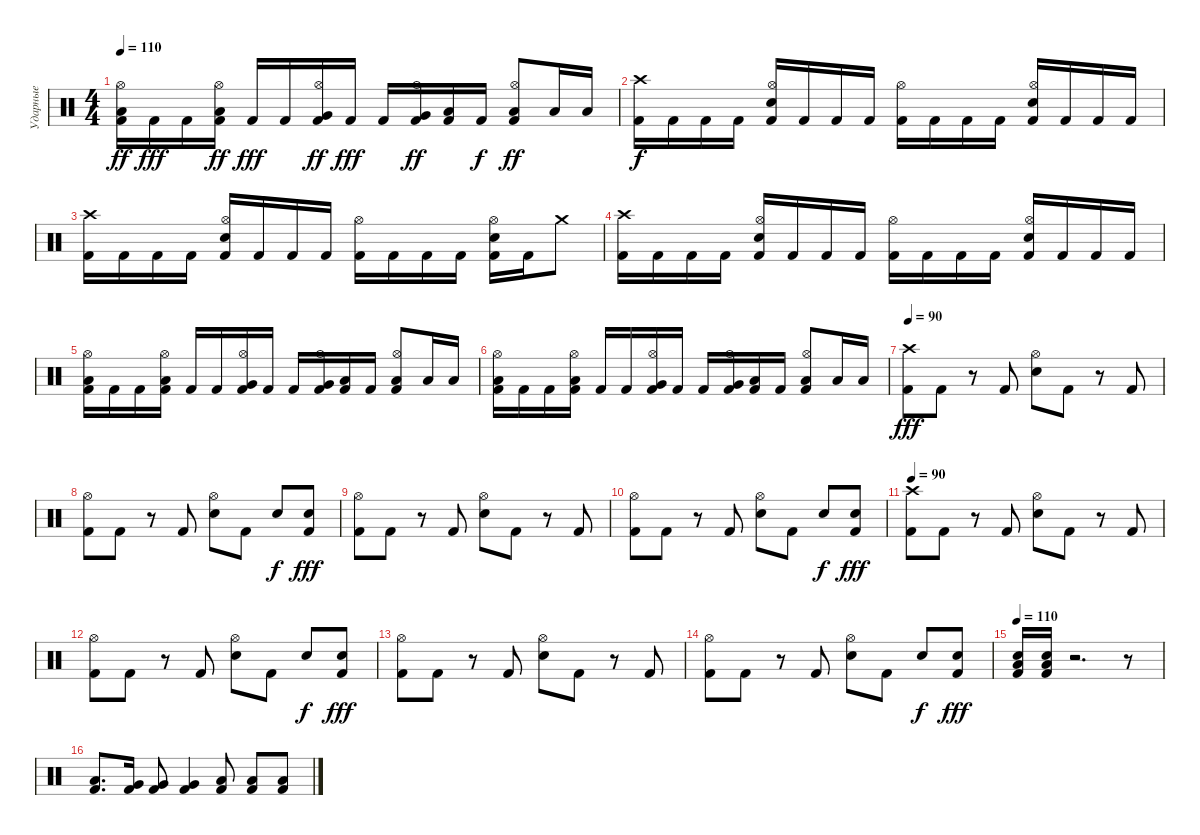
\track ("Ударные" "Ударные") {instrument percussion}
\staff {score}
\articulation defaults
\ts (4 4)
\tempo 110
\clef neutral
\ks c
("Kick (hit) 2" "Low Floor Tom (hit)" "Hi-Hat (open)").16{dy ff} "Kick (hit) 2".16{dy fff} "Kick (hit) 2".16 ("Kick (hit) 2" "Low Floor Tom (hit)" "Hi-Hat (open)").16{dy ff} "Kick (hit) 2".16{dy fff} "Kick (hit) 2".16 ("Kick (hit) 2" "Very Low Tom (hit)" "Hi-Hat (open)").16{dy ff} "Kick (hit) 2".16{dy fff} "Kick (hit) 2".16 ("Kick (hit) 2" "Very Low Tom (hit)" "Hi-Hat (open)").16{dy ff} ("Kick (hit) 2" "Low Tom (hit)").16 "Kick (hit) 2".16{dy f} ("Kick (hit) 2" "Low Tom (hit)" "Hi-Hat (open)").8{dy ff} "Low Floor Tom (hit)".16 "Low Floor Tom (hit)".16 |
("Kick (hit) 2" "Crash high (hit)").16{dy f} "Kick (hit) 2".16 "Kick (hit) 2".16 "Kick (hit) 2".16 ("Kick (hit) 2" "Hi-Hat (open)" "Snare (hit) 2").16 "Kick (hit) 2".16 "Kick (hit) 2".16 "Kick (hit) 2".16 ("Kick (hit) 2" "Hi-Hat (open)").16 "Kick (hit) 2".16 "Kick (hit) 2".16 "Kick (hit) 2".16 ("Kick (hit) 2" "Hi-Hat (open)" "Snare (hit) 2").16 "Kick (hit) 2".16 "Kick (hit) 2".16 "Kick (hit) 2".16 |
("Kick (hit) 2" "Crash high (hit)").16 "Kick (hit) 2".16 "Kick (hit) 2".16 "Kick (hit) 2".16 ("Kick (hit) 2" "Hi-Hat (open)" "Snare (hit) 2").16 "Kick (hit) 2".16 "Kick (hit) 2".16 "Kick (hit) 2".16 ("Kick (hit) 2" "Hi-Hat (open)").16 "Kick (hit) 2".16 "Kick (hit) 2".16 "Kick (hit) 2".16 ("Kick (hit) 2" "Hi-Hat (open)" "Snare (hit) 2").16 "Kick (hit) 2".16 "Crash medium (hit)".8 |
("Kick (hit) 2" "Crash high (hit)").16 "Kick (hit) 2".16 "Kick (hit) 2".16 "Kick (hit) 2".16 ("Kick (hit) 2" "Hi-Hat (open)" "Snare (hit) 2").16 "Kick (hit) 2".16 "Kick (hit) 2".16 "Kick (hit) 2".16 ("Kick (hit) 2" "Hi-Hat (open)").16 "Kick (hit) 2".16 "Kick (hit) 2".16 "Kick (hit) 2".16 ("Kick (hit) 2" "Hi-Hat (open)" "Snare (hit) 2").16 "Kick (hit) 2".16 "Kick (hit) 2".16 "Kick (hit) 2".16 |
("Kick (hit) 2" "Low Floor Tom (hit)" "Hi-Hat (open)").16 "Kick (hit) 2".16 "Kick (hit) 2".16 ("Kick (hit) 2" "Low Floor Tom (hit)" "Hi-Hat (open)").16 "Kick (hit) 2".16 "Kick (hit) 2".16 ("Kick (hit) 2" "Very Low Tom (hit)" "Hi-Hat (open)").16 "Kick (hit) 2".16 "Kick (hit) 2".16 ("Kick (hit) 2" "Very Low Tom (hit)" "Hi-Hat (open)").16 ("Kick (hit) 2" "Low Tom (hit)").16 "Kick (hit) 2".16 ("Kick (hit) 2" "Low Tom (hit)" "Hi-Hat (open)").8 "Low Floor Tom (hit)".16 "Low Floor Tom (hit)".16 |
("Kick (hit) 2" "Low Floor Tom (hit)" "Hi-Hat (open)").16 "Kick (hit) 2".16 "Kick (hit) 2".16 ("Kick (hit) 2" "Low Floor Tom (hit)" "Hi-Hat (open)").16 "Kick (hit) 2".16 "Kick (hit) 2".16 ("Kick (hit) 2" "Very Low Tom (hit)" "Hi-Hat (open)").16 "Kick (hit) 2".16 "Kick (hit) 2".16 ("Kick (hit) 2" "Very Low Tom (hit)" "Hi-Hat (open)").16 ("Kick (hit) 2" "Low Tom (hit)").16 "Kick (hit) 2".16 ("Kick (hit) 2" "Low Tom (hit)" "Hi-Hat (open)").8 "Low Floor Tom (hit)".16 "Low Floor Tom (hit)".16 |
\tempo 90
("Crash high (hit)" "Kick (hit) 2").8{dy fff volume 7} "Kick (hit) 2".8 r.8 "Kick (hit) 2".8 ("Hi-Hat (open)" "Snare (hit) 2").8 "Kick (hit) 2".8 r.8 "Kick (hit) 2".8 |
("Hi-Hat (open)" "Kick (hit) 2").8 "Kick (hit) 2".8 r.8 "Kick (hit) 2".8 ("Hi-Hat (open)" "Snare (hit) 2").8 "Kick (hit) 2".8 "Snare (hit) 2".8{dy f} ("Snare (hit) 2" "Kick (hit) 2").8{dy fff} |
("Hi-Hat (open)" "Kick (hit) 2").8 "Kick (hit) 2".8 r.8 "Kick (hit) 2".8 ("Hi-Hat (open)" "Snare (hit) 2").8 "Kick (hit) 2".8 r.8 "Kick (hit) 2".8 |
("Hi-Hat (open)" "Kick (hit) 2").8 "Kick (hit) 2".8 r.8 "Kick (hit) 2".8 ("Hi-Hat (open)" "Snare (hit) 2").8 "Kick (hit) 2".8 "Snare (hit) 2".8{dy f} ("Snare (hit) 2" "Kick (hit) 2").8{dy fff} |
\tempo 90
("Crash high (hit)" "Kick (hit) 2").8 "Kick (hit) 2".8 r.8 "Kick (hit) 2".8 ("Hi-Hat (open)" "Snare (hit) 2").8 "Kick (hit) 2".8 r.8 "Kick (hit) 2".8 |
("Hi-Hat (open)" "Kick (hit) 2").8 "Kick (hit) 2".8 r.8 "Kick (hit) 2".8 ("Hi-Hat (open)" "Snare (hit) 2").8 "Kick (hit) 2".8 "Snare (hit) 2".8{dy f} ("Snare (hit) 2" "Kick (hit) 2").8{dy fff} |
("Hi-Hat (open)" "Kick (hit) 2").8 "Kick (hit) 2".8 r.8 "Kick (hit) 2".8 ("Hi-Hat (open)" "Snare (hit) 2").8 "Kick (hit) 2".8 r.8 "Kick (hit) 2".8 |
("Hi-Hat (open)" "Kick (hit) 2").8 "Kick (hit) 2".8 r.8 "Kick (hit) 2".8 ("Hi-Hat (open)" "Snare (hit) 2").8 "Kick (hit) 2".8 "Snare (hit) 2".8{dy f} ("Snare (hit) 2" "Kick (hit) 2").8{dy fff} |
\tempo 110
("Kick (hit) 2" "Low Floor Tom (hit)" "Snare (hit) 2").16 ("Kick (hit) 2" "Low Floor Tom (hit)" "Snare (hit) 2").16 r.2{d} r.8 |
("Low Tom (hit)" "Kick (hit) 2").8{d} ("Very Low Tom (hit)" "Kick (hit) 2").16 ("Very Low Tom (hit)" "Kick (hit) 2").8 ("Very Low Tom (hit)" "Kick (hit) 2").4 ("Kick (hit) 2" "Low Floor Tom (hit)").8 ("Kick (hit) 2" "Low Floor Tom (hit)").8 ("Kick (hit) 2" "Low Floor Tom (hit)").8
